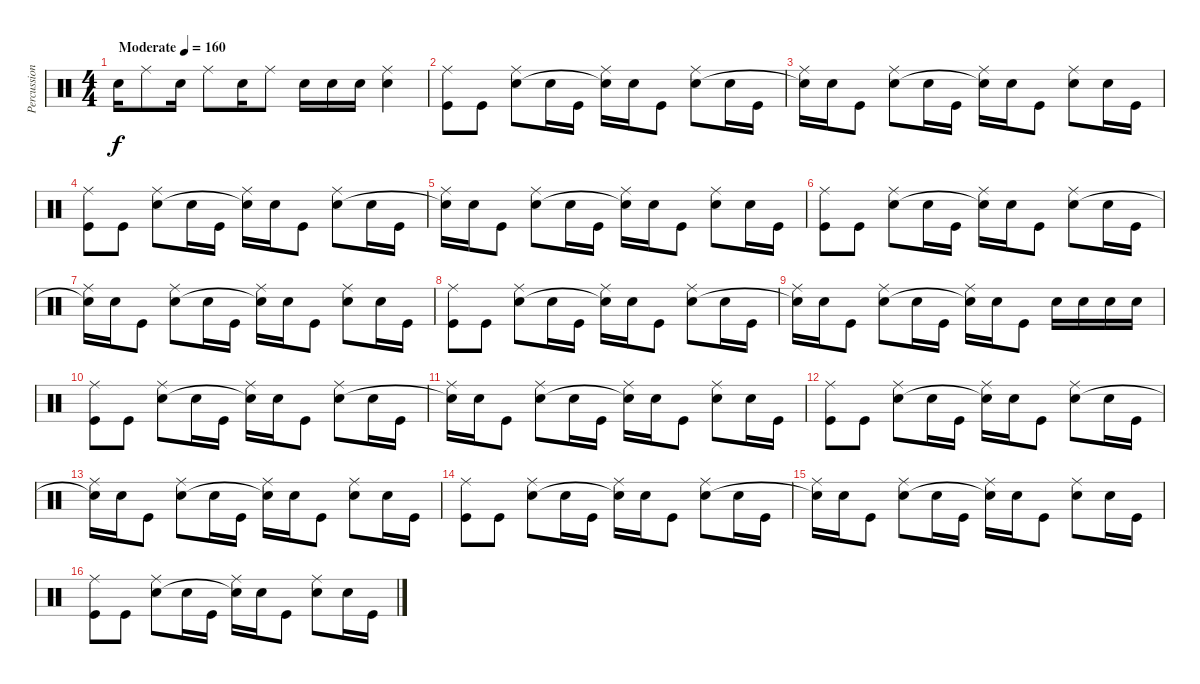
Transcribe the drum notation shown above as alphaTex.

\track ("Percussion" "Percussion") {instrument percussion}
\staff {score}
\articulation defaults
\ts (4 4)
\tempo (160 "Moderate")
\clef neutral
\ks c "Snare (hit) 2".16{dy f} "Ride (middle)".8 "Snare (hit) 2".16 "Ride (middle)".8 "Snare (hit) 2".16 "Ride (middle)".8 "Snare (hit) 2".16 "Snare (hit) 2".16 "Snare (hit) 2".16
("Ride (middle)" "Snare (hit) 2").4 |
("Ride (middle)" "Kick (hit)").8 "Kick (hit)".8 ("Ride (middle)" "Snare (hit) 2").8 "Snare (hit) 2".16 "Kick (hit)".16 ("Ride (middle)" "Snare (hit)"{t}).16 "Snare (hit) 2".16 "Kick (hit)".8 ("Ride (middle)" "Snare (hit) 2").8 "Snare (hit) 2".16 "Kick (hit)".16 |
("Ride (middle)" "Snare (hit)"{t}).16 "Snare (hit) 2".16 "Kick (hit)".8 ("Ride (middle)" "Snare (hit) 2").8 "Snare (hit) 2".16 "Kick (hit)".16 ("Ride (middle)" "Snare (hit)"{t}).16 "Snare (hit) 2".16 "Kick (hit)".8 ("Ride (middle)" "Snare (hit) 2").8 "Snare (hit) 2".16 "Kick (hit)".16 |
("Ride (middle)" "Kick (hit)").8 "Kick (hit)".8 ("Ride (middle)" "Snare (hit) 2").8 "Snare (hit) 2".16 "Kick (hit)".16 ("Ride (middle)" "Snare (hit)"{t}).16 "Snare (hit) 2".16 "Kick (hit)".8 ("Ride (middle)" "Snare (hit) 2").8 "Snare (hit) 2".16 "Kick (hit)".16 |
("Ride (middle)" "Snare (hit)"{t}).16 "Snare (hit) 2".16 "Kick (hit)".8 ("Ride (middle)" "Snare (hit) 2").8 "Snare (hit) 2".16 "Kick (hit)".16 ("Ride (middle)" "Snare (hit)"{t}).16 "Snare (hit) 2".16 "Kick (hit)".8 ("Ride (middle)" "Snare (hit) 2").8 "Snare (hit) 2".16 "Kick (hit)".16 |
("Ride (middle)" "Kick (hit)").8 "Kick (hit)".8 ("Ride (middle)" "Snare (hit) 2").8 "Snare (hit) 2".16 "Kick (hit)".16 ("Ride (middle)" "Snare (hit)"{t}).16 "Snare (hit) 2".16 "Kick (hit)".8 ("Ride (middle)" "Snare (hit) 2").8 "Snare (hit) 2".16 "Kick (hit)".16 |
("Ride (middle)" "Snare (hit)"{t}).16 "Snare (hit) 2".16 "Kick (hit)".8 ("Ride (middle)" "Snare (hit) 2").8 "Snare (hit) 2".16 "Kick (hit)".16 ("Ride (middle)" "Snare (hit)"{t}).16 "Snare (hit) 2".16 "Kick (hit)".8 ("Ride (middle)" "Snare (hit) 2").8 "Snare (hit) 2".16 "Kick (hit)".16 |
("Ride (middle)" "Kick (hit)").8 "Kick (hit)".8 ("Ride (middle)" "Snare (hit) 2").8 "Snare (hit) 2".16 "Kick (hit)".16 ("Ride (middle)" "Snare (hit)"{t}).16 "Snare (hit) 2".16 "Kick (hit)".8 ("Ride (middle)" "Snare (hit) 2").8 "Snare (hit) 2".16 "Kick (hit)".16 |
("Ride (middle)" "Snare (hit)"{t}).16 "Snare (hit) 2".16 "Kick (hit)".8 ("Ride (middle)" "Snare (hit) 2").8 "Snare (hit) 2".16 "Kick (hit)".16 ("Ride (middle)" "Snare (hit)"{t}).16 "Snare (hit) 2".16 "Kick (hit)".8 "Snare (hit) 2".16 "Snare (hit) 2".16 "Snare (hit) 2".16 "Snare (hit) 2".16 |
("Ride (middle)" "Kick (hit)").8 "Kick (hit)".8 ("Ride (middle)" "Snare (hit) 2").8 "Snare (hit) 2".16 "Kick (hit)".16 ("Ride (middle)" "Snare (hit)"{t}).16 "Snare (hit) 2".16 "Kick (hit)".8 ("Ride (middle)" "Snare (hit) 2").8 "Snare (hit) 2".16 "Kick (hit)".16 |
("Ride (middle)" "Snare (hit)"{t}).16 "Snare (hit) 2".16 "Kick (hit)".8 ("Ride (middle)" "Snare (hit) 2").8 "Snare (hit) 2".16 "Kick (hit)".16 ("Ride (middle)" "Snare (hit)"{t}).16 "Snare (hit) 2".16 "Kick (hit)".8 ("Ride (middle)" "Snare (hit) 2").8 "Snare (hit) 2".16 "Kick (hit)".16 |
("Ride (middle)" "Kick (hit)").8 "Kick (hit)".8 ("Ride (middle)" "Snare (hit) 2").8 "Snare (hit) 2".16 "Kick (hit)".16 ("Ride (middle)" "Snare (hit)"{t}).16 "Snare (hit) 2".16 "Kick (hit)".8 ("Ride (middle)" "Snare (hit) 2").8 "Snare (hit) 2".16 "Kick (hit)".16 |
("Ride (middle)" "Snare (hit)"{t}).16 "Snare (hit) 2".16 "Kick (hit)".8 ("Ride (middle)" "Snare (hit) 2").8 "Snare (hit) 2".16 "Kick (hit)".16 ("Ride (middle)" "Snare (hit)"{t}).16 "Snare (hit) 2".16 "Kick (hit)".8 ("Ride (middle)" "Snare (hit) 2").8 "Snare (hit) 2".16 "Kick (hit)".16 |
("Ride (middle)" "Kick (hit)").8 "Kick (hit)".8 ("Ride (middle)" "Snare (hit) 2").8 "Snare (hit) 2".16 "Kick (hit)".16 ("Ride (middle)" "Snare (hit)"{t}).16 "Snare (hit) 2".16 "Kick (hit)".8 ("Ride (middle)" "Snare (hit) 2").8 "Snare (hit) 2".16 "Kick (hit)".16 |
("Ride (middle)" "Snare (hit)"{t}).16 "Snare (hit) 2".16 "Kick (hit)".8 ("Ride (middle)" "Snare (hit) 2").8 "Snare (hit) 2".16 "Kick (hit)".16 ("Ride (middle)" "Snare (hit)"{t}).16 "Snare (hit) 2".16 "Kick (hit)".8 ("Ride (middle)" "Snare (hit) 2").8 "Snare (hit) 2".16 "Kick (hit)".16 |
("Ride (middle)" "Kick (hit)").8 "Kick (hit)".8 ("Ride (middle)" "Snare (hit) 2").8 "Snare (hit) 2".16 "Kick (hit)".16 ("Ride (middle)" "Snare (hit)"{t}).16 "Snare (hit) 2".16 "Kick (hit)".8 ("Ride (middle)" "Snare (hit) 2").8 "Snare (hit) 2".16 "Kick (hit)".16
